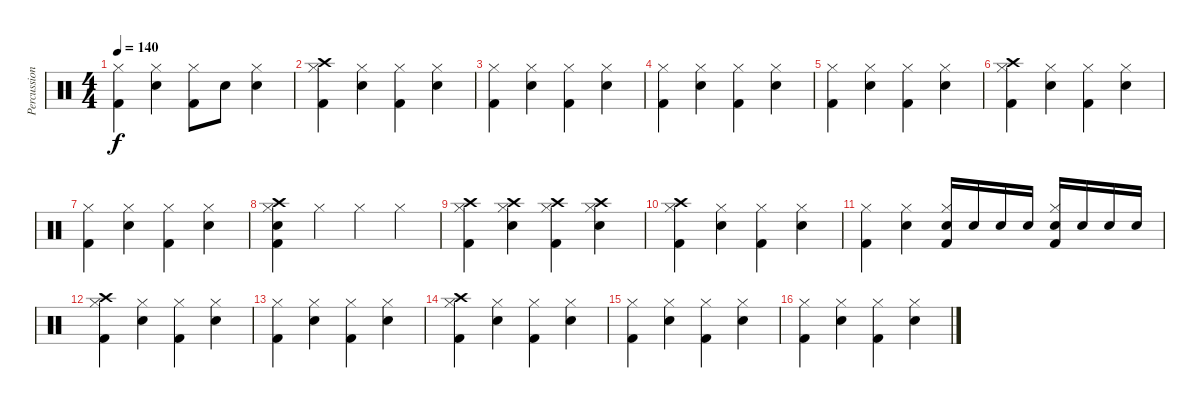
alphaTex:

\track ("Percussions" "Percussion") {instrument percussion}
\staff {score}
\articulation defaults
\ts (4 4)
\tempo 140
\clef neutral
\ks c
("Kick (hit) 2" "Hi-Hat (closed)").4{dy f} ("Snare (hit) 2" "Hi-Hat (closed)").4 ("Kick (hit) 2" "Hi-Hat (closed)").8 "Snare (hit) 2".8 ("Snare (hit) 2" "Hi-Hat (closed)").4 |
("Kick (hit) 2" "Crash high (hit)" "Hi-Hat (closed)").4 ("Snare (hit) 2" "Hi-Hat (closed)").4 ("Kick (hit) 2" "Hi-Hat (closed)").4 ("Snare (hit) 2" "Hi-Hat (closed)").4 |
("Kick (hit) 2" "Hi-Hat (closed)").4 ("Snare (hit) 2" "Hi-Hat (closed)").4 ("Kick (hit) 2" "Hi-Hat (closed)").4 ("Snare (hit) 2" "Hi-Hat (closed)").4 |
("Kick (hit) 2" "Hi-Hat (closed)").4 ("Snare (hit) 2" "Hi-Hat (closed)").4 ("Kick (hit) 2" "Hi-Hat (closed)").4 ("Snare (hit) 2" "Hi-Hat (closed)").4 |
("Kick (hit) 2" "Hi-Hat (closed)").4 ("Snare (hit) 2" "Hi-Hat (closed)").4 ("Kick (hit) 2" "Hi-Hat (closed)").4 ("Snare (hit) 2" "Hi-Hat (closed)").4 |
("Kick (hit) 2" "Crash high (hit)" "Hi-Hat (closed)").4 ("Snare (hit) 2" "Hi-Hat (closed)").4 ("Kick (hit) 2" "Hi-Hat (closed)").4 ("Snare (hit) 2" "Hi-Hat (closed)").4 |
("Kick (hit) 2" "Hi-Hat (closed)").4 ("Snare (hit) 2" "Hi-Hat (closed)").4 ("Kick (hit) 2" "Hi-Hat (closed)").4 ("Snare (hit) 2" "Hi-Hat (closed)").4 |
("Kick (hit) 2" "Snare (hit) 2" "Crash high (hit)" "Hi-Hat (closed)").4 "Hi-Hat (closed)".4 "Hi-Hat (closed)".4 "Hi-Hat (closed)".4 |
("Kick (hit) 2" "Crash high (hit)" "Hi-Hat (closed)").4 ("Snare (hit) 2" "Crash high (hit)" "Hi-Hat (closed)").4 ("Kick (hit) 2" "Crash high (hit)" "Hi-Hat (closed)").4 ("Snare (hit) 2" "Crash high (hit)" "Hi-Hat (closed)").4 |
("Kick (hit) 2" "Crash high (hit)" "Hi-Hat (closed)").4 ("Snare (hit) 2" "Hi-Hat (closed)").4 ("Kick (hit) 2" "Hi-Hat (closed)").4 ("Snare (hit) 2" "Hi-Hat (closed)").4 |
("Kick (hit) 2" "Hi-Hat (closed)").4 ("Snare (hit) 2" "Hi-Hat (closed)").4 ("Kick (hit) 2" "Snare (hit) 2" "Hi-Hat (closed)").16 "Snare (hit) 2".16 "Snare (hit) 2".16 "Snare (hit) 2".16 ("Kick (hit) 2" "Snare (hit) 2" "Hi-Hat (closed)").16 "Snare (hit) 2".16 "Snare (hit) 2".16 "Snare (hit) 2".16 |
("Kick (hit) 2" "Crash high (hit)" "Hi-Hat (closed)").4 ("Snare (hit) 2" "Hi-Hat (closed)").4 ("Kick (hit) 2" "Hi-Hat (closed)").4 ("Snare (hit) 2" "Hi-Hat (closed)").4 |
("Kick (hit) 2" "Hi-Hat (closed)").4 ("Snare (hit) 2" "Hi-Hat (closed)").4 ("Kick (hit) 2" "Hi-Hat (closed)").4 ("Snare (hit) 2" "Hi-Hat (closed)").4 |
("Kick (hit) 2" "Crash high (hit)" "Hi-Hat (closed)").4 ("Snare (hit) 2" "Hi-Hat (closed)").4 ("Kick (hit) 2" "Hi-Hat (closed)").4 ("Snare (hit) 2" "Hi-Hat (closed)").4 |
("Kick (hit) 2" "Hi-Hat (closed)").4 ("Snare (hit) 2" "Hi-Hat (closed)").4 ("Kick (hit) 2" "Hi-Hat (closed)").4 ("Snare (hit) 2" "Hi-Hat (closed)").4 |
("Kick (hit) 2" "Hi-Hat (closed)").4 ("Snare (hit) 2" "Hi-Hat (closed)").4 ("Kick (hit) 2" "Hi-Hat (closed)").4 ("Snare (hit) 2" "Hi-Hat (closed)").4
